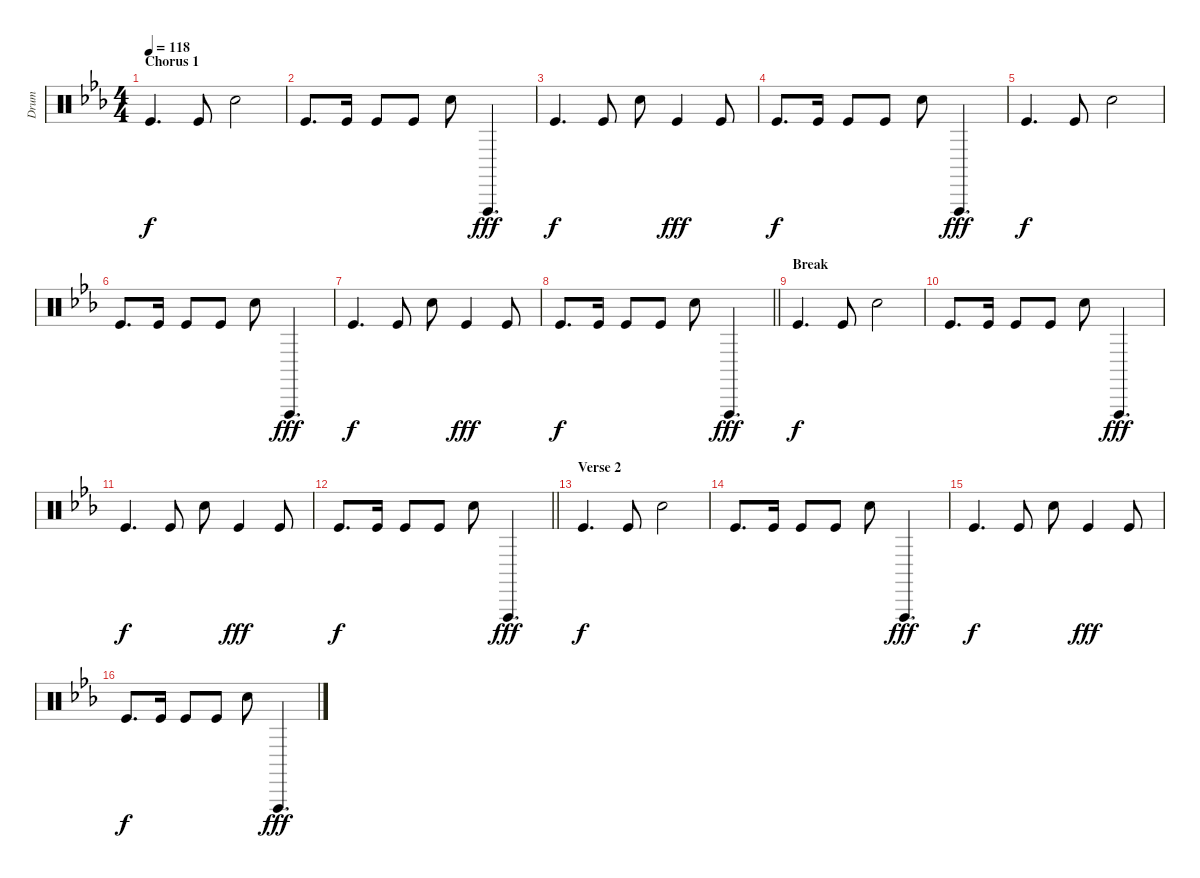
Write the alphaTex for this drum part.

\track ("Drum" "Drum") {instrument percussion}
\staff {score}
\articulation defaults
\ts (4 4)
\section ("" "Chorus 1")
\tempo 118
\clef neutral
\ks eb "Kick (hit)".4{d dy f} "Kick (hit)".8 "Hand Clap (hit)".2
|
"Kick (hit)".8{d} "Kick (hit)".16 "Kick (hit)".8 "Kick (hit)".8 "Hand Clap (hit)".8 "Vibraslap (hit)".4{d dy fff} |
"Kick (hit)".4{d dy f} "Kick (hit)".8 "Hand Clap (hit)".8 "Kick (hit)".4{dy fff} "Kick (hit)".8 |
"Kick (hit)".8{d dy f} "Kick (hit)".16 "Kick (hit)".8 "Kick (hit)".8 "Hand Clap (hit)".8 "Vibraslap (hit)".4{d dy fff} |
"Kick (hit)".4{d dy f} "Kick (hit)".8 "Hand Clap (hit)".2 |
"Kick (hit)".8{d} "Kick (hit)".16 "Kick (hit)".8 "Kick (hit)".8 "Hand Clap (hit)".8 "Vibraslap (hit)".4{d dy fff} |
"Kick (hit)".4{d dy f} "Kick (hit)".8 "Hand Clap (hit)".8 "Kick (hit)".4{dy fff} "Kick (hit)".8 |
\barLineRight lightlight "Kick (hit)".8{d dy f} "Kick (hit)".16 "Kick (hit)".8 "Kick (hit)".8 "Hand Clap (hit)".8 "Vibraslap (hit)".4{d dy fff}
|
\section ("" "Break")
"Kick (hit)".4{d dy f} "Kick (hit)".8 "Hand Clap (hit)".2 |
"Kick (hit)".8{d} "Kick (hit)".16 "Kick (hit)".8 "Kick (hit)".8 "Hand Clap (hit)".8 "Vibraslap (hit)".4{d dy fff} |
"Kick (hit)".4{d dy f} "Kick (hit)".8 "Hand Clap (hit)".8 "Kick (hit)".4{dy fff} "Kick (hit)".8 |
\barLineRight lightlight "Kick (hit)".8{d dy f} "Kick (hit)".16 "Kick (hit)".8 "Kick (hit)".8 "Hand Clap (hit)".8 "Vibraslap (hit)".4{d dy fff}
|
\section ("" "Verse 2")
"Kick (hit)".4{d dy f} "Kick (hit)".8 "Hand Clap (hit)".2 |
"Kick (hit)".8{d} "Kick (hit)".16 "Kick (hit)".8 "Kick (hit)".8 "Hand Clap (hit)".8 "Vibraslap (hit)".4{d dy fff} |
"Kick (hit)".4{d dy f} "Kick (hit)".8 "Hand Clap (hit)".8 "Kick (hit)".4{dy fff} "Kick (hit)".8 |
"Kick (hit)".8{d dy f} "Kick (hit)".16 "Kick (hit)".8 "Kick (hit)".8 "Hand Clap (hit)".8 "Vibraslap (hit)".4{d dy fff}
